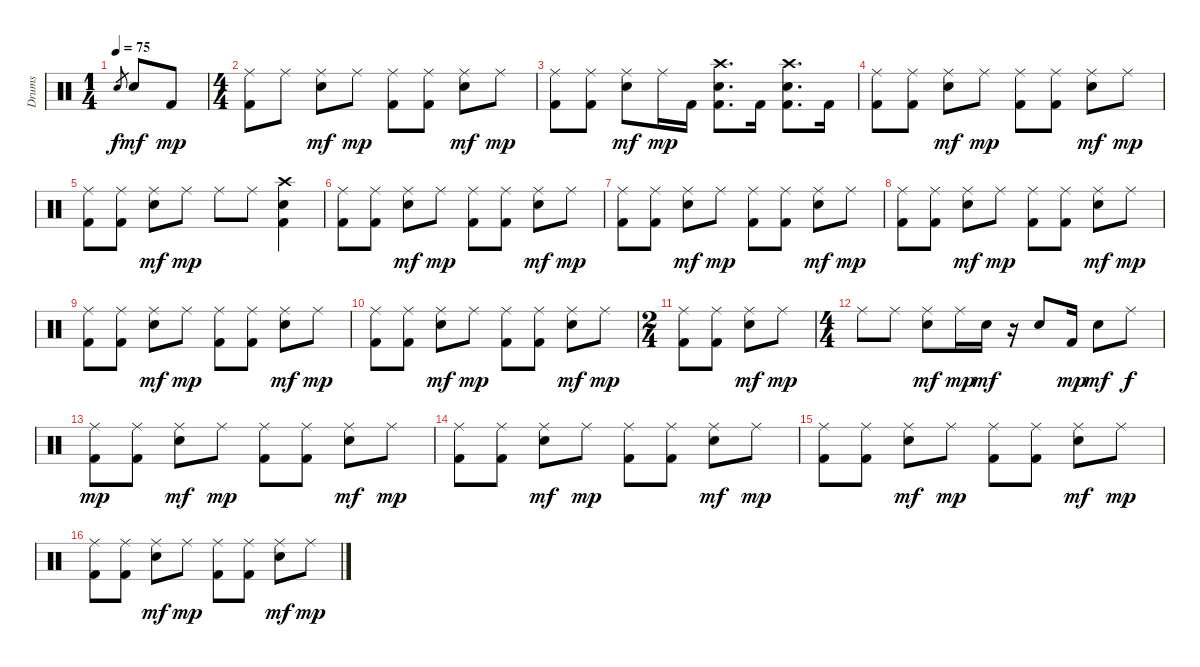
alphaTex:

\track ("Drums" "Drums") {instrument percussion}
\staff {score}
\articulation defaults
\ts (1 4)
\tempo 75
\clef neutral
\ks c "Electric Snare (hit)".8{gr dy f} "Electric Snare (hit)".8{dy mf} "Kick (hit) 2".8{dy mp}
|
\ts (4 4)
("Ride (middle)" "Kick (hit) 2").8 "Ride (middle)".8 ("Ride (middle)" "Electric Snare (hit)").8{dy mf} "Ride (middle)".8{dy mp} ("Ride (middle)" "Kick (hit) 2").8 ("Ride (middle)" "Kick (hit) 2").8 ("Ride (middle)" "Electric Snare (hit)").8{dy mf} "Ride (middle)".8{dy mp} |
("Ride (middle)" "Kick (hit) 2").8 ("Ride (middle)" "Kick (hit) 2").8 ("Ride (middle)" "Electric Snare (hit)").8{dy mf} "Ride (middle)".16{dy mp} "Kick (hit) 2".16 ("Crash high (hit)" "Electric Snare (hit)" "Kick (hit) 2").8{d} "Kick (hit) 2".16 ("Crash high (hit)" "Electric Snare (hit)" "Kick (hit) 2").8{d} "Kick (hit) 2".16 |
("Ride (middle)" "Kick (hit) 2").8 ("Ride (middle)" "Kick (hit) 2").8 ("Ride (middle)" "Electric Snare (hit)").8{dy mf} "Ride (middle)".8{dy mp} ("Ride (middle)" "Kick (hit) 2").8 ("Ride (middle)" "Kick (hit) 2").8 ("Ride (middle)" "Electric Snare (hit)").8{dy mf} "Ride (middle)".8{dy mp} |
("Ride (middle)" "Kick (hit) 2").8 ("Ride (middle)" "Kick (hit) 2").8 ("Ride (middle)" "Electric Snare (hit)").8{dy mf} "Ride (middle)".8{dy mp} "Ride (middle)".8 "Ride (middle)".8 ("Crash high (hit)" "Electric Snare (hit)" "Kick (hit) 2").4 |
("Ride (middle)" "Kick (hit) 2").8 ("Ride (middle)" "Kick (hit) 2").8 ("Ride (middle)" "Electric Snare (hit)").8{dy mf} "Ride (middle)".8{dy mp} ("Ride (middle)" "Kick (hit) 2").8 ("Ride (middle)" "Kick (hit) 2").8 ("Ride (middle)" "Electric Snare (hit)").8{dy mf} "Ride (middle)".8{dy mp} |
("Ride (middle)" "Kick (hit) 2").8 ("Ride (middle)" "Kick (hit) 2").8 ("Ride (middle)" "Electric Snare (hit)").8{dy mf} "Ride (middle)".8{dy mp} ("Ride (middle)" "Kick (hit) 2").8 ("Ride (middle)" "Kick (hit) 2").8 ("Ride (middle)" "Electric Snare (hit)").8{dy mf} "Ride (middle)".8{dy mp} |
("Ride (middle)" "Kick (hit) 2").8 ("Ride (middle)" "Kick (hit) 2").8 ("Ride (middle)" "Electric Snare (hit)").8{dy mf} "Ride (middle)".8{dy mp} ("Ride (middle)" "Kick (hit) 2").8 ("Ride (middle)" "Kick (hit) 2").8 ("Ride (middle)" "Electric Snare (hit)").8{dy mf} "Ride (middle)".8{dy mp} |
("Ride (middle)" "Kick (hit) 2").8 ("Ride (middle)" "Kick (hit) 2").8 ("Ride (middle)" "Electric Snare (hit)").8{dy mf} "Ride (middle)".8{dy mp} ("Ride (middle)" "Kick (hit) 2").8 ("Ride (middle)" "Kick (hit) 2").8 ("Ride (middle)" "Electric Snare (hit)").8{dy mf} "Ride (middle)".8{dy mp} |
("Ride (middle)" "Kick (hit) 2").8 ("Ride (middle)" "Kick (hit) 2").8 ("Ride (middle)" "Electric Snare (hit)").8{dy mf} "Ride (middle)".8{dy mp} ("Ride (middle)" "Kick (hit) 2").8 ("Ride (middle)" "Kick (hit) 2").8 ("Ride (middle)" "Electric Snare (hit)").8{dy mf} "Ride (middle)".8{dy mp} |
\ts (2 4)
("Ride (middle)" "Kick (hit) 2").8 ("Ride (middle)" "Kick (hit) 2").8 ("Ride (middle)" "Electric Snare (hit)").8{dy mf} "Ride (middle)".8{dy mp} |
\ts (4 4)
"Ride (middle)".8 "Ride (middle)".8 ("Ride (middle)" "Electric Snare (hit)").8{dy mf} "Ride (middle)".16{dy mp} "Electric Snare (hit)".16{dy mf} r.16 "Electric Snare (hit)".8 "Kick (hit) 2".16{dy mp} "Electric Snare (hit)".8{dy mf} "Ride (middle)".8{dy f} |
("Ride (middle)" "Kick (hit) 2").8{dy mp} ("Ride (middle)" "Kick (hit) 2").8 ("Ride (middle)" "Electric Snare (hit)").8{dy mf} "Ride (middle)".8{dy mp} ("Ride (middle)" "Kick (hit) 2").8 ("Ride (middle)" "Kick (hit) 2").8 ("Ride (middle)" "Electric Snare (hit)").8{dy mf} "Ride (middle)".8{dy mp} |
("Ride (middle)" "Kick (hit) 2").8 ("Ride (middle)" "Kick (hit) 2").8 ("Ride (middle)" "Electric Snare (hit)").8{dy mf} "Ride (middle)".8{dy mp} ("Ride (middle)" "Kick (hit) 2").8 ("Ride (middle)" "Kick (hit) 2").8 ("Ride (middle)" "Electric Snare (hit)").8{dy mf} "Ride (middle)".8{dy mp} |
("Ride (middle)" "Kick (hit) 2").8 ("Ride (middle)" "Kick (hit) 2").8 ("Ride (middle)" "Electric Snare (hit)").8{dy mf} "Ride (middle)".8{dy mp} ("Ride (middle)" "Kick (hit) 2").8 ("Ride (middle)" "Kick (hit) 2").8 ("Ride (middle)" "Electric Snare (hit)").8{dy mf} "Ride (middle)".8{dy mp} |
("Ride (middle)" "Kick (hit) 2").8 ("Ride (middle)" "Kick (hit) 2").8 ("Ride (middle)" "Electric Snare (hit)").8{dy mf} "Ride (middle)".8{dy mp} ("Ride (middle)" "Kick (hit) 2").8 ("Ride (middle)" "Kick (hit) 2").8 ("Ride (middle)" "Electric Snare (hit)").8{dy mf} "Ride (middle)".8{dy mp}
